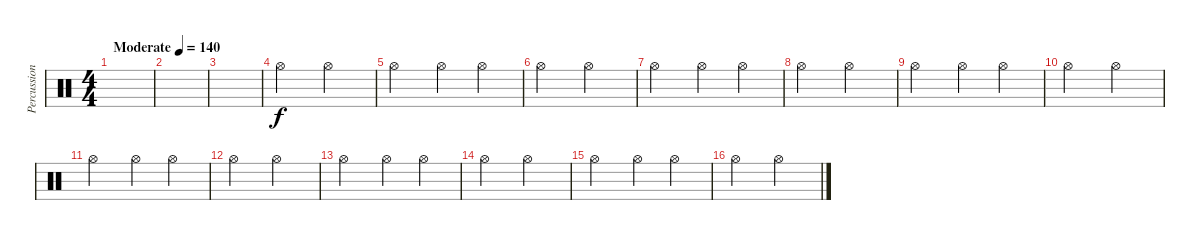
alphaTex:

\track ("Percussions" "Percussion") {instrument percussion}
\staff {score}
\articulation defaults
\ts (4 4)
\tempo (140 "Moderate")
\clef neutral
\ks c
|
|
|
"Hi-Hat (open)".2 "Hi-Hat (open)".2 |
"Hi-Hat (open)".2 "Hi-Hat (open)".4 "Hi-Hat (open)".4 |
"Hi-Hat (open)".2 "Hi-Hat (open)".2 |
"Hi-Hat (open)".2 "Hi-Hat (open)".4 "Hi-Hat (open)".4 |
"Hi-Hat (open)".2 "Hi-Hat (open)".2 |
"Hi-Hat (open)".2 "Hi-Hat (open)".4 "Hi-Hat (open)".4 |
"Hi-Hat (open)".2 "Hi-Hat (open)".2 |
"Hi-Hat (open)".2 "Hi-Hat (open)".4 "Hi-Hat (open)".4 |
"Hi-Hat (open)".2 "Hi-Hat (open)".2 |
"Hi-Hat (open)".2 "Hi-Hat (open)".4 "Hi-Hat (open)".4 |
"Hi-Hat (open)".2 "Hi-Hat (open)".2 |
"Hi-Hat (open)".2 "Hi-Hat (open)".4 "Hi-Hat (open)".4 |
"Hi-Hat (open)".2 "Hi-Hat (open)".2
